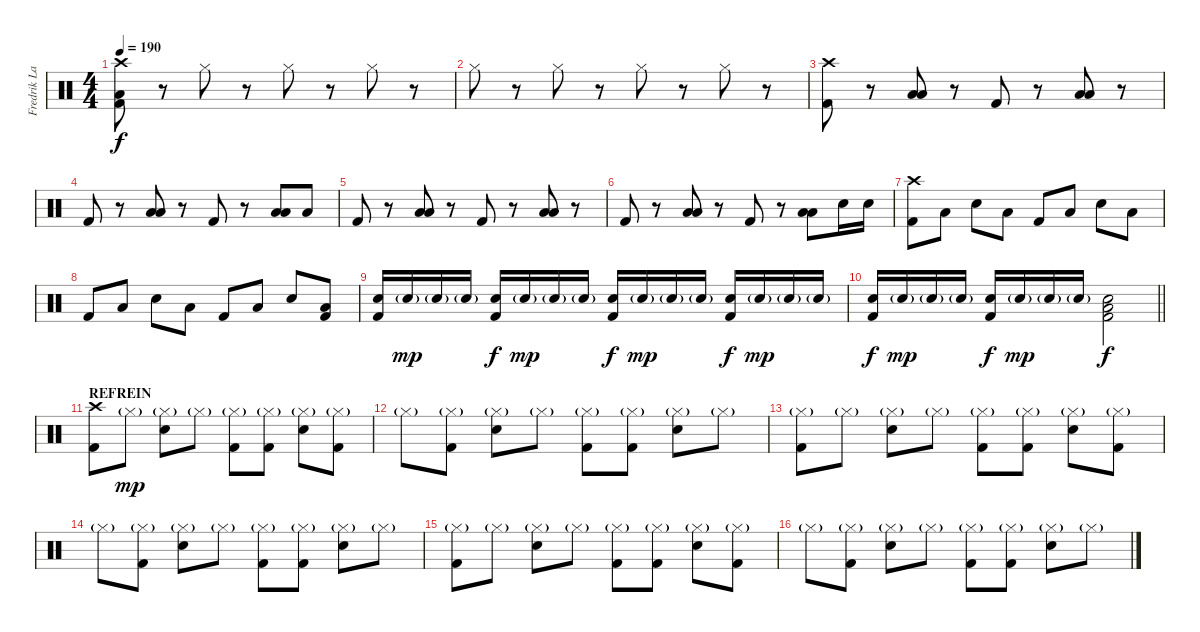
\track ("Fredrik Larson" "Fredrik La") {instrument percussion}
\staff {score}
\articulation defaults
\ts (4 4)
\tempo 190
\clef neutral
\ks c
("Crash high (hit)" "Low Floor Tom (hit)" "Kick (hit) 2").8{dy f} r.8 "Hi-Hat (closed)".8 r.8 "Hi-Hat (closed)".8 r.8 "Hi-Hat (closed)".8 r.8 |
"Hi-Hat (closed)".8 r.8 "Hi-Hat (closed)".8 r.8 "Hi-Hat (closed)".8 r.8 "Hi-Hat (closed)".8 r.8 |
("Crash high (hit)" "Kick (hit) 2").8 r.8 ("Low Tom (hit)" "Low Floor Tom (hit)").8 r.8 "Kick (hit) 2".8 r.8 ("Low Tom (hit)" "Low Floor Tom (hit)").8 r.8 |
"Kick (hit) 2".8 r.8 ("Low Tom (hit)" "Low Floor Tom (hit)").8 r.8 "Kick (hit) 2".8 r.8 ("Low Tom (hit)" "Low Floor Tom (hit)").8 "Low Floor Tom (hit)".8 |
"Kick (hit) 2".8 r.8 ("Low Tom (hit)" "Low Floor Tom (hit)").8 r.8 "Kick (hit) 2".8 r.8 ("Low Tom (hit)" "Low Floor Tom (hit)").8 r.8 |
"Kick (hit) 2".8 r.8 ("Low Tom (hit)" "Low Floor Tom (hit)").8 r.8 "Kick (hit) 2".8 r.8 ("Low Tom (hit)" "Low Floor Tom (hit)").8 "Snare (hit) 2".16 "Snare (hit) 2".16 |
("Crash high (hit)" "Kick (hit) 2").8 "Low Floor Tom (hit)".8 "Snare (hit) 2".8 "Low Floor Tom (hit)".8 "Kick (hit) 2".8 "Low Floor Tom (hit)".8 "Snare (hit) 2".8 "Low Floor Tom (hit)".8 |
"Kick (hit) 2".8 "Low Floor Tom (hit)".8 "Snare (hit) 2".8 "Low Floor Tom (hit)".8 "Kick (hit) 2".8 "Low Floor Tom (hit)".8 "Snare (hit) 2".8 ("Low Floor Tom (hit)" "Kick (hit) 2").8 |
("Snare (hit) 2" "Kick (hit) 2").16 "Snare (hit) 2"{g}.16{dy mp} "Snare (hit) 2"{g}.16 "Snare (hit) 2"{g}.16 ("Snare (hit) 2" "Kick (hit) 2").16{dy f} "Snare (hit) 2"{g}.16{dy mp} "Snare (hit) 2"{g}.16 "Snare (hit) 2"{g}.16 ("Snare (hit) 2" "Kick (hit) 2").16{dy f} "Snare (hit) 2"{g}.16{dy mp} "Snare (hit) 2"{g}.16 "Snare (hit) 2"{g}.16 ("Snare (hit) 2" "Kick (hit) 2").16{dy f} "Snare (hit) 2"{g}.16{dy mp} "Snare (hit) 2"{g}.16 "Snare (hit) 2"{g}.16 |
\barLineRight lightlight
("Snare (hit) 2" "Kick (hit) 2").16{dy f} "Snare (hit) 2"{g}.16{dy mp} "Snare (hit) 2"{g}.16 "Snare (hit) 2"{g}.16 ("Snare (hit) 2" "Kick (hit) 2").16{dy f} "Snare (hit) 2"{g}.16{dy mp} "Snare (hit) 2"{g}.16 "Snare (hit) 2"{g}.16 ("Low Floor Tom (hit)" "Snare (hit) 2" "Kick (hit) 2").2{dy f} |
\section ("" "REFREIN")
("Crash high (hit)" "Kick (hit) 2").8 "Hi-Hat (closed)"{g}.8{dy mp} ("Hi-Hat (closed)"{g} "Snare (hit) 2").8 "Hi-Hat (closed)"{g}.8 ("Hi-Hat (closed)"{g} "Kick (hit) 2").8 ("Hi-Hat (closed)"{g} "Kick (hit) 2").8 ("Hi-Hat (closed)"{g} "Snare (hit) 2").8 ("Hi-Hat (closed)"{g} "Kick (hit) 2").8 |
"Hi-Hat (closed)"{g}.8 ("Hi-Hat (closed)"{g} "Kick (hit) 2").8 ("Hi-Hat (closed)"{g} "Snare (hit) 2").8 "Hi-Hat (closed)"{g}.8 ("Hi-Hat (closed)"{g} "Kick (hit) 2").8 ("Hi-Hat (closed)"{g} "Kick (hit) 2").8 ("Hi-Hat (closed)"{g} "Snare (hit) 2").8 "Hi-Hat (closed)"{g}.8 |
("Hi-Hat (closed)"{g} "Kick (hit) 2").8 "Hi-Hat (closed)"{g}.8 ("Hi-Hat (closed)"{g} "Snare (hit) 2").8 "Hi-Hat (closed)"{g}.8 ("Hi-Hat (closed)"{g} "Kick (hit) 2").8 ("Hi-Hat (closed)"{g} "Kick (hit) 2").8 ("Hi-Hat (closed)"{g} "Snare (hit) 2").8 ("Hi-Hat (closed)"{g} "Kick (hit) 2").8 |
"Hi-Hat (closed)"{g}.8 ("Hi-Hat (closed)"{g} "Kick (hit) 2").8 ("Hi-Hat (closed)"{g} "Snare (hit) 2").8 "Hi-Hat (closed)"{g}.8 ("Hi-Hat (closed)"{g} "Kick (hit) 2").8 ("Hi-Hat (closed)"{g} "Kick (hit) 2").8 ("Hi-Hat (closed)"{g} "Snare (hit) 2").8 "Hi-Hat (closed)"{g}.8 |
("Hi-Hat (closed)"{g} "Kick (hit) 2").8 "Hi-Hat (closed)"{g}.8 ("Hi-Hat (closed)"{g} "Snare (hit) 2").8 "Hi-Hat (closed)"{g}.8 ("Hi-Hat (closed)"{g} "Kick (hit) 2").8 ("Hi-Hat (closed)"{g} "Kick (hit) 2").8 ("Hi-Hat (closed)"{g} "Snare (hit) 2").8 ("Hi-Hat (closed)"{g} "Kick (hit) 2").8 |
"Hi-Hat (closed)"{g}.8 ("Hi-Hat (closed)"{g} "Kick (hit) 2").8 ("Hi-Hat (closed)"{g} "Snare (hit) 2").8 "Hi-Hat (closed)"{g}.8 ("Hi-Hat (closed)"{g} "Kick (hit) 2").8 ("Hi-Hat (closed)"{g} "Kick (hit) 2").8 ("Hi-Hat (closed)"{g} "Snare (hit) 2").8 "Hi-Hat (closed)"{g}.8
